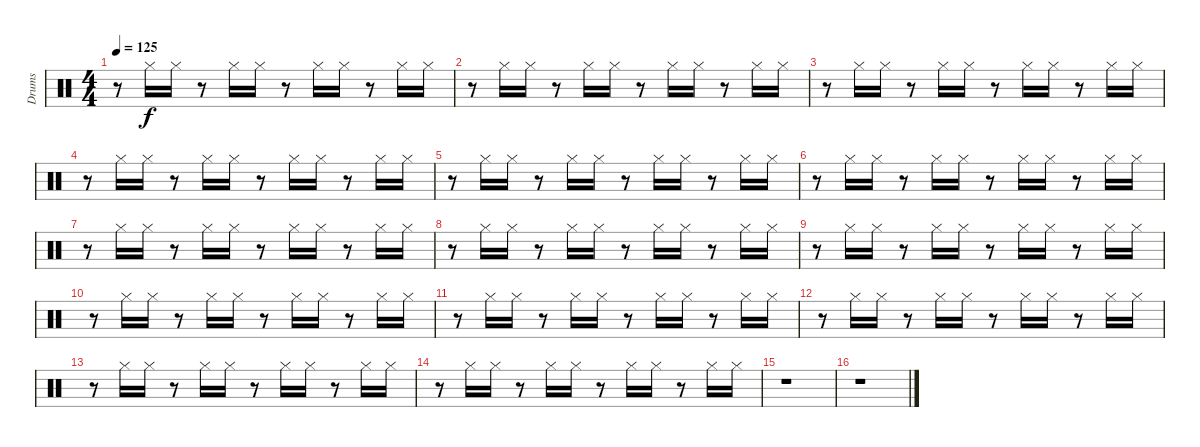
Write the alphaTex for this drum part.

\track ("Drums" "Drums") {instrument percussion}
\staff {score}
\articulation defaults
\ts (4 4)
\tempo 125
\clef neutral
\ks c
r.8{dy f} "Hi-Hat (closed)".16 "Hi-Hat (closed)".16 r.8 "Hi-Hat (closed)".16 "Hi-Hat (closed)".16 r.8 "Hi-Hat (closed)".16 "Hi-Hat (closed)".16 r.8 "Hi-Hat (closed)".16 "Hi-Hat (closed)".16 |
r.8 "Hi-Hat (closed)".16 "Hi-Hat (closed)".16 r.8 "Hi-Hat (closed)".16 "Hi-Hat (closed)".16 r.8 "Hi-Hat (closed)".16 "Hi-Hat (closed)".16 r.8 "Hi-Hat (closed)".16 "Hi-Hat (closed)".16 |
r.8 "Hi-Hat (closed)".16 "Hi-Hat (closed)".16 r.8 "Hi-Hat (closed)".16 "Hi-Hat (closed)".16 r.8 "Hi-Hat (closed)".16 "Hi-Hat (closed)".16 r.8 "Hi-Hat (closed)".16 "Hi-Hat (closed)".16 |
r.8 "Hi-Hat (closed)".16 "Hi-Hat (closed)".16 r.8 "Hi-Hat (closed)".16 "Hi-Hat (closed)".16 r.8 "Hi-Hat (closed)".16 "Hi-Hat (closed)".16 r.8 "Hi-Hat (closed)".16 "Hi-Hat (closed)".16 |
r.8 "Hi-Hat (closed)".16 "Hi-Hat (closed)".16 r.8 "Hi-Hat (closed)".16 "Hi-Hat (closed)".16 r.8 "Hi-Hat (closed)".16 "Hi-Hat (closed)".16 r.8 "Hi-Hat (closed)".16 "Hi-Hat (closed)".16 |
r.8 "Hi-Hat (closed)".16 "Hi-Hat (closed)".16 r.8 "Hi-Hat (closed)".16 "Hi-Hat (closed)".16 r.8 "Hi-Hat (closed)".16 "Hi-Hat (closed)".16 r.8 "Hi-Hat (closed)".16 "Hi-Hat (closed)".16 |
r.8 "Hi-Hat (closed)".16 "Hi-Hat (closed)".16 r.8 "Hi-Hat (closed)".16 "Hi-Hat (closed)".16 r.8 "Hi-Hat (closed)".16 "Hi-Hat (closed)".16 r.8 "Hi-Hat (closed)".16 "Hi-Hat (closed)".16 |
r.8 "Hi-Hat (closed)".16 "Hi-Hat (closed)".16 r.8 "Hi-Hat (closed)".16 "Hi-Hat (closed)".16 r.8 "Hi-Hat (closed)".16 "Hi-Hat (closed)".16 r.8 "Hi-Hat (closed)".16 "Hi-Hat (closed)".16 |
r.8 "Hi-Hat (closed)".16 "Hi-Hat (closed)".16 r.8 "Hi-Hat (closed)".16 "Hi-Hat (closed)".16 r.8 "Hi-Hat (closed)".16 "Hi-Hat (closed)".16 r.8 "Hi-Hat (closed)".16 "Hi-Hat (closed)".16 |
r.8 "Hi-Hat (closed)".16 "Hi-Hat (closed)".16 r.8 "Hi-Hat (closed)".16 "Hi-Hat (closed)".16 r.8 "Hi-Hat (closed)".16 "Hi-Hat (closed)".16 r.8 "Hi-Hat (closed)".16 "Hi-Hat (closed)".16 |
r.8 "Hi-Hat (closed)".16 "Hi-Hat (closed)".16 r.8 "Hi-Hat (closed)".16 "Hi-Hat (closed)".16 r.8 "Hi-Hat (closed)".16 "Hi-Hat (closed)".16 r.8 "Hi-Hat (closed)".16 "Hi-Hat (closed)".16 |
r.8 "Hi-Hat (closed)".16 "Hi-Hat (closed)".16 r.8 "Hi-Hat (closed)".16 "Hi-Hat (closed)".16 r.8 "Hi-Hat (closed)".16 "Hi-Hat (closed)".16 r.8 "Hi-Hat (closed)".16 "Hi-Hat (closed)".16 |
r.8 "Hi-Hat (closed)".16 "Hi-Hat (closed)".16 r.8 "Hi-Hat (closed)".16 "Hi-Hat (closed)".16 r.8 "Hi-Hat (closed)".16 "Hi-Hat (closed)".16 r.8 "Hi-Hat (closed)".16 "Hi-Hat (closed)".16 |
r.8 "Hi-Hat (closed)".16 "Hi-Hat (closed)".16 r.8 "Hi-Hat (closed)".16 "Hi-Hat (closed)".16 r.8 "Hi-Hat (closed)".16 "Hi-Hat (closed)".16 r.8 "Hi-Hat (closed)".16 "Hi-Hat (closed)".16 |
r.1 |
r.1
